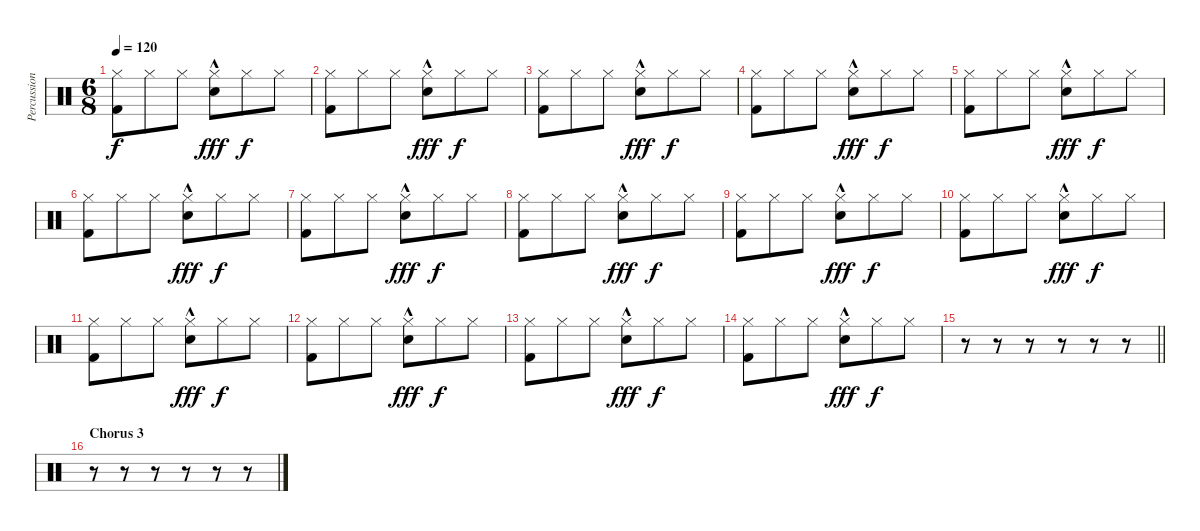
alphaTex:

\track ("Percussion" "Percussion") {mute instrument percussion}
\staff {score}
\articulation defaults
\ts (6 8)
\tempo 120
\clef neutral
\ks c
("Kick (hit) 2" "Hi-Hat (closed)").8{dy f} "Hi-Hat (closed)".8 "Hi-Hat (closed)".8 ("Snare (hit) 2"{hac} "Hi-Hat (closed)").8{dy fff} "Hi-Hat (closed)".8{dy f} "Hi-Hat (closed)".8 |
("Kick (hit) 2" "Hi-Hat (closed)").8 "Hi-Hat (closed)".8 "Hi-Hat (closed)".8 ("Snare (hit) 2"{hac} "Hi-Hat (closed)").8{dy fff} "Hi-Hat (closed)".8{dy f} "Hi-Hat (closed)".8 |
("Kick (hit) 2" "Hi-Hat (closed)").8 "Hi-Hat (closed)".8 "Hi-Hat (closed)".8 ("Snare (hit) 2"{hac} "Hi-Hat (closed)").8{dy fff} "Hi-Hat (closed)".8{dy f} "Hi-Hat (closed)".8 |
("Kick (hit) 2" "Hi-Hat (closed)").8 "Hi-Hat (closed)".8 "Hi-Hat (closed)".8 ("Snare (hit) 2"{hac} "Hi-Hat (closed)").8{dy fff} "Hi-Hat (closed)".8{dy f} "Hi-Hat (closed)".8 |
("Kick (hit) 2" "Hi-Hat (closed)").8 "Hi-Hat (closed)".8 "Hi-Hat (closed)".8 ("Snare (hit) 2"{hac} "Hi-Hat (closed)").8{dy fff} "Hi-Hat (closed)".8{dy f} "Hi-Hat (closed)".8 |
("Kick (hit) 2" "Hi-Hat (closed)").8 "Hi-Hat (closed)".8 "Hi-Hat (closed)".8 ("Snare (hit) 2"{hac} "Hi-Hat (closed)").8{dy fff} "Hi-Hat (closed)".8{dy f} "Hi-Hat (closed)".8 |
("Kick (hit) 2" "Hi-Hat (closed)").8 "Hi-Hat (closed)".8 "Hi-Hat (closed)".8 ("Snare (hit) 2"{hac} "Hi-Hat (closed)").8{dy fff} "Hi-Hat (closed)".8{dy f} "Hi-Hat (closed)".8 |
("Kick (hit) 2" "Hi-Hat (closed)").8 "Hi-Hat (closed)".8 "Hi-Hat (closed)".8 ("Snare (hit) 2"{hac} "Hi-Hat (closed)").8{dy fff} "Hi-Hat (closed)".8{dy f} "Hi-Hat (closed)".8 |
("Kick (hit) 2" "Hi-Hat (closed)").8 "Hi-Hat (closed)".8 "Hi-Hat (closed)".8 ("Snare (hit) 2"{hac} "Hi-Hat (closed)").8{dy fff} "Hi-Hat (closed)".8{dy f} "Hi-Hat (closed)".8 |
("Kick (hit) 2" "Hi-Hat (closed)").8 "Hi-Hat (closed)".8 "Hi-Hat (closed)".8 ("Snare (hit) 2"{hac} "Hi-Hat (closed)").8{dy fff} "Hi-Hat (closed)".8{dy f} "Hi-Hat (closed)".8 |
("Kick (hit) 2" "Hi-Hat (closed)").8 "Hi-Hat (closed)".8 "Hi-Hat (closed)".8 ("Snare (hit) 2"{hac} "Hi-Hat (closed)").8{dy fff} "Hi-Hat (closed)".8{dy f} "Hi-Hat (closed)".8 |
("Kick (hit) 2" "Hi-Hat (closed)").8 "Hi-Hat (closed)".8 "Hi-Hat (closed)".8 ("Snare (hit) 2"{hac} "Hi-Hat (closed)").8{dy fff} "Hi-Hat (closed)".8{dy f} "Hi-Hat (closed)".8 |
("Kick (hit) 2" "Hi-Hat (closed)").8 "Hi-Hat (closed)".8 "Hi-Hat (closed)".8 ("Snare (hit) 2"{hac} "Hi-Hat (closed)").8{dy fff} "Hi-Hat (closed)".8{dy f} "Hi-Hat (closed)".8 |
("Kick (hit) 2" "Hi-Hat (closed)").8 "Hi-Hat (closed)".8 "Hi-Hat (closed)".8 ("Snare (hit) 2"{hac} "Hi-Hat (closed)").8{dy fff} "Hi-Hat (closed)".8{dy f} "Hi-Hat (closed)".8 |
\barLineRight lightlight
r.8 r.8 r.8 r.8 r.8 r.8 |
\section ("" "Chorus 3")
r.8 r.8 r.8 r.8 r.8 r.8
